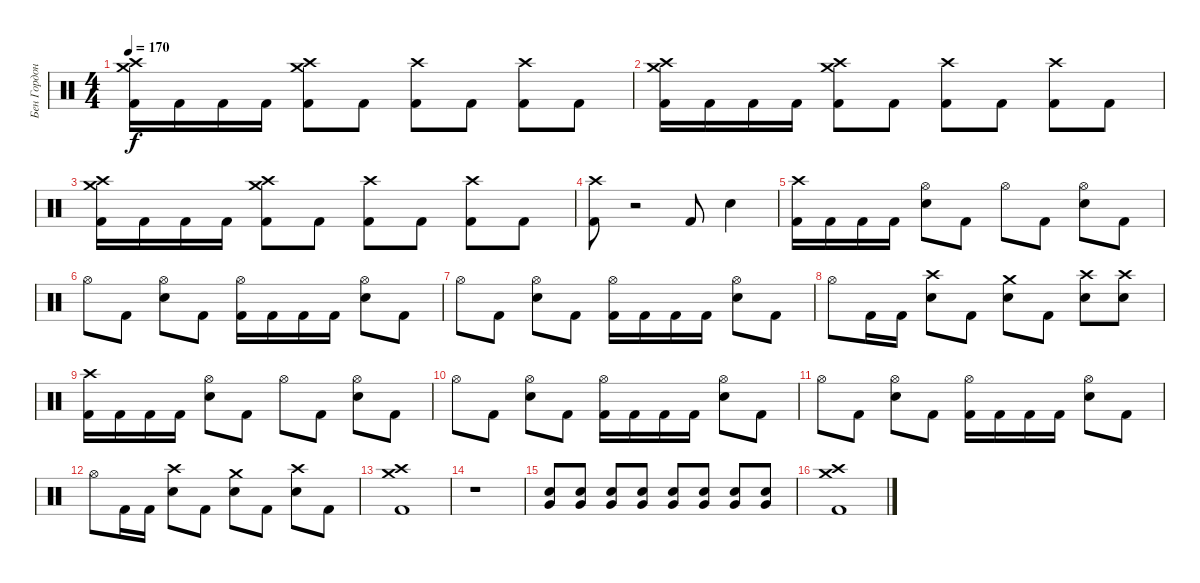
\track ("Бен Гордон" "Бен Гордон") {instrument percussion}
\staff {score}
\articulation defaults
\ts (4 4)
\tempo 170
\clef neutral
\ks c
("Crash high (hit)" "Crash medium (hit)" "Kick (hit) 2").16{dy f} "Kick (hit) 2".16 "Kick (hit) 2".16 "Kick (hit) 2".16 ("Crash high (hit)" "Crash medium (hit)" "Kick (hit) 2").8 "Kick (hit) 2".8 ("Crash high (hit)" "Kick (hit) 2").8 "Kick (hit) 2".8 ("Crash high (hit)" "Kick (hit) 2").8 "Kick (hit) 2".8 |
("Crash high (hit)" "Crash medium (hit)" "Kick (hit) 2").16 "Kick (hit) 2".16 "Kick (hit) 2".16 "Kick (hit) 2".16 ("Crash high (hit)" "Crash medium (hit)" "Kick (hit) 2").8 "Kick (hit) 2".8 ("Crash high (hit)" "Kick (hit) 2").8 "Kick (hit) 2".8 ("Crash high (hit)" "Kick (hit) 2").8 "Kick (hit) 2".8 |
("Crash high (hit)" "Crash medium (hit)" "Kick (hit) 2").16 "Kick (hit) 2".16 "Kick (hit) 2".16 "Kick (hit) 2".16 ("Crash high (hit)" "Crash medium (hit)" "Kick (hit) 2").8 "Kick (hit) 2".8 ("Crash high (hit)" "Kick (hit) 2").8 "Kick (hit) 2".8 ("Crash high (hit)" "Kick (hit) 2").8 "Kick (hit) 2".8 |
("Crash high (hit)" "Kick (hit) 2").8 r.2 "Kick (hit) 2".8 "Electric Snare (hit)".4 |
("Crash high (hit)" "Kick (hit) 2").16 "Kick (hit) 2".16 "Kick (hit) 2".16 "Kick (hit) 2".16 ("Hi-Hat (open)" "Electric Snare (hit)").8 "Kick (hit) 2".8 "Hi-Hat (open)".8 "Kick (hit) 2".8 ("Hi-Hat (open)" "Electric Snare (hit)").8 "Kick (hit) 2".8 |
"Hi-Hat (open)".8 "Kick (hit) 2".8 ("Hi-Hat (open)" "Electric Snare (hit)").8 "Kick (hit) 2".8 ("Hi-Hat (open)" "Kick (hit) 2").16 "Kick (hit) 2".16 "Kick (hit) 2".16 "Kick (hit) 2".16 ("Hi-Hat (open)" "Electric Snare (hit)").8 "Kick (hit) 2".8 |
"Hi-Hat (open)".8 "Kick (hit) 2".8 ("Hi-Hat (open)" "Electric Snare (hit)").8 "Kick (hit) 2".8 ("Hi-Hat (open)" "Kick (hit) 2").16 "Kick (hit) 2".16 "Kick (hit) 2".16 "Kick (hit) 2".16 ("Hi-Hat (open)" "Electric Snare (hit)").8 "Kick (hit) 2".8 |
"Hi-Hat (open)".8 "Kick (hit) 2".16 "Kick (hit) 2".16 ("Crash high (hit)" "Electric Snare (hit)").8 "Kick (hit) 2".8 ("Crash medium (hit)" "Electric Snare (hit)").8 "Kick (hit) 2".8 ("Crash high (hit)" "Electric Snare (hit)").8 ("Crash high (hit)" "Electric Snare (hit)").8 |
("Crash high (hit)" "Kick (hit) 2").16 "Kick (hit) 2".16 "Kick (hit) 2".16 "Kick (hit) 2".16 ("Hi-Hat (open)" "Electric Snare (hit)").8 "Kick (hit) 2".8 "Hi-Hat (open)".8 "Kick (hit) 2".8 ("Hi-Hat (open)" "Electric Snare (hit)").8 "Kick (hit) 2".8 |
"Hi-Hat (open)".8 "Kick (hit) 2".8 ("Hi-Hat (open)" "Electric Snare (hit)").8 "Kick (hit) 2".8 ("Hi-Hat (open)" "Kick (hit) 2").16 "Kick (hit) 2".16 "Kick (hit) 2".16 "Kick (hit) 2".16 ("Hi-Hat (open)" "Electric Snare (hit)").8 "Kick (hit) 2".8 |
"Hi-Hat (open)".8 "Kick (hit) 2".8 ("Hi-Hat (open)" "Electric Snare (hit)").8 "Kick (hit) 2".8 ("Hi-Hat (open)" "Kick (hit) 2").16 "Kick (hit) 2".16 "Kick (hit) 2".16 "Kick (hit) 2".16 ("Hi-Hat (open)" "Electric Snare (hit)").8 "Kick (hit) 2".8 |
"Hi-Hat (open)".8 "Kick (hit) 2".16 "Kick (hit) 2".16 ("Crash high (hit)" "Electric Snare (hit)").8 "Kick (hit) 2".8 ("Crash medium (hit)" "Electric Snare (hit)").8 "Kick (hit) 2".8 ("Crash high (hit)" "Electric Snare (hit)").8 "Kick (hit) 2".8 |
("Crash high (hit)" "Crash medium (hit)" "Kick (hit) 2").1 |
r.1 |
("Electric Snare (hit)" "Very Low Tom (hit)").8 ("Electric Snare (hit)" "Very Low Tom (hit)").8 ("Electric Snare (hit)" "Very Low Tom (hit)").8 ("Electric Snare (hit)" "Very Low Tom (hit)").8 ("Electric Snare (hit)" "Very Low Tom (hit)").8 ("Electric Snare (hit)" "Very Low Tom (hit)").8 ("Electric Snare (hit)" "Very Low Tom (hit)").8 ("Electric Snare (hit)" "Very Low Tom (hit)").8 |
("Crash high (hit)" "Crash medium (hit)" "Kick (hit) 2").1
